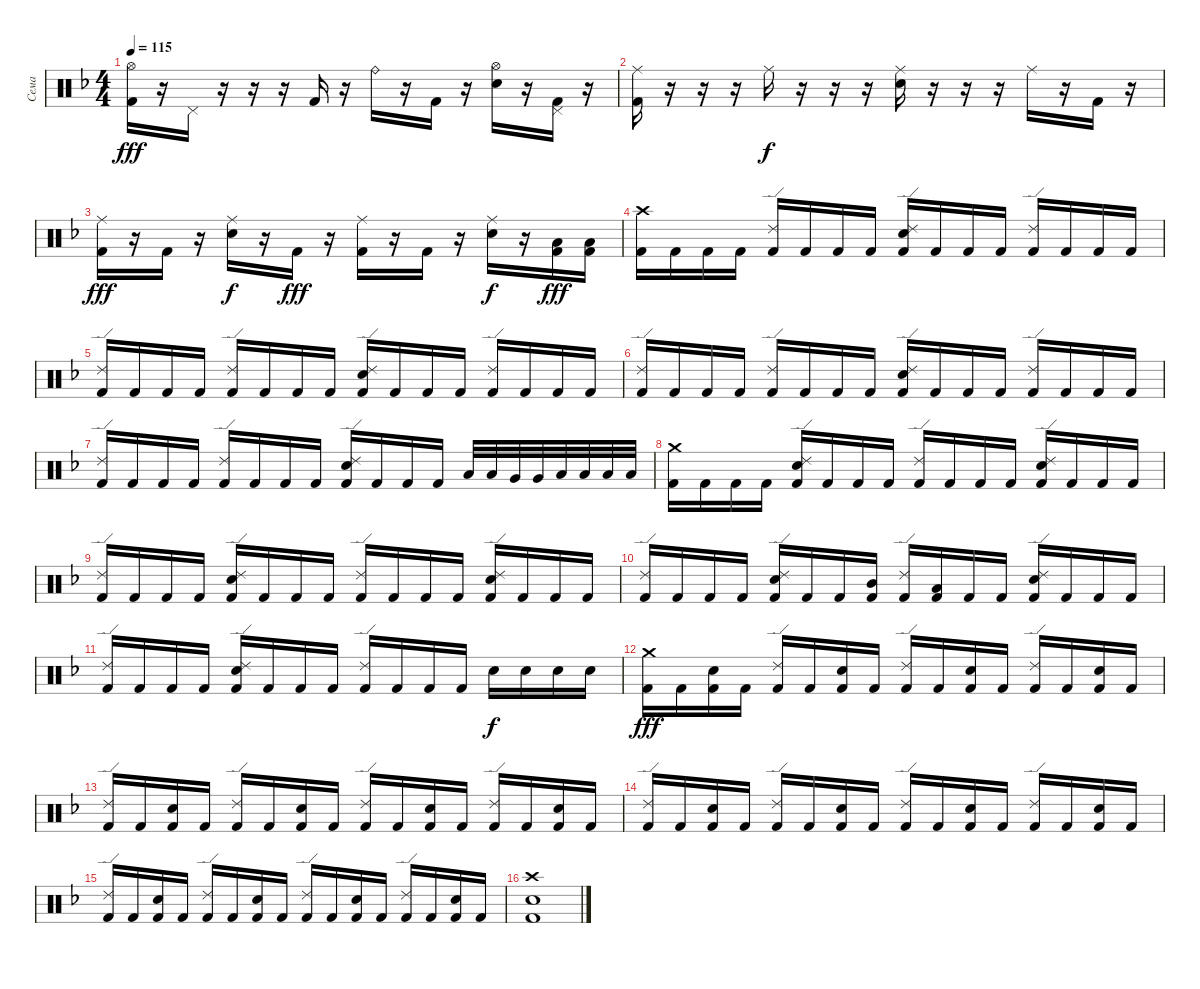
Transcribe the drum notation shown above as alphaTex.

\track ("Сема" "Сема") {instrument percussion}
\staff {score}
\articulation defaults
\ts (4 4)
\tempo 115
\clef neutral
\ks dminor
("Hi-Hat (open)" "Kick (hit) 2").16{dy fff} r.16 "Pedal Hi-Hat (hit)".16 r.16 r.16 r.16 "Kick (hit) 2".16 r.16 "Ride (bell)".16 r.16 "Kick (hit) 2".16 r.16 ("Hi-Hat (open)" "Electric Snare (hit)").16 r.16 ("Pedal Hi-Hat (hit)" "Kick (hit) 2").16 r.16 |
("Ride (middle)" "Kick (hit) 2").16 r.16 r.16 r.16 "Ride (middle)".16{dy f} r.16 r.16 r.16 ("Ride (middle)" "Electric Snare (hit)").16 r.16 r.16 r.16 "Ride (middle)".16 r.16 "Kick (hit) 2".16 r.16 |
("Ride (middle)" "Kick (hit) 2").16{dy fff} r.16 "Kick (hit) 2".16 r.16 ("Ride (middle)" "Electric Snare (hit)").16{dy f} r.16 "Kick (hit) 2".16{dy fff} r.16 ("Ride (middle)" "Kick (hit) 2").16 r.16 "Kick (hit) 2".16 r.16 ("Ride (middle)" "Electric Snare (hit)").16{dy f} r.16 ("Low Tom (hit)" "Kick (hit) 2").16{dy fff} ("Low Floor Tom (hit)" "Kick (hit) 2").16 |
("Crash high (hit)" "Kick (hit) 2").16 "Kick (hit) 2".16 "Kick (hit) 2".16 "Kick (hit) 2".16 ("Ride (edge) 2" "Kick (hit) 2").16 "Kick (hit) 2".16 "Kick (hit) 2".16 "Kick (hit) 2".16 ("Ride (edge) 2" "Electric Snare (hit)" "Kick (hit) 2").16 "Kick (hit) 2".16 "Kick (hit) 2".16 "Kick (hit) 2".16 ("Ride (edge) 2" "Kick (hit) 2").16 "Kick (hit) 2".16 "Kick (hit) 2".16 "Kick (hit) 2".16 |
("Ride (edge) 2" "Kick (hit) 2").16 "Kick (hit) 2".16 "Kick (hit) 2".16 "Kick (hit) 2".16 ("Ride (edge) 2" "Kick (hit) 2").16 "Kick (hit) 2".16 "Kick (hit) 2".16 "Kick (hit) 2".16 ("Ride (edge) 2" "Electric Snare (hit)" "Kick (hit) 2").16 "Kick (hit) 2".16 "Kick (hit) 2".16 "Kick (hit) 2".16 ("Ride (edge) 2" "Kick (hit) 2").16 "Kick (hit) 2".16 "Kick (hit) 2".16 "Kick (hit) 2".16 |
("Ride (edge) 2" "Kick (hit) 2").16 "Kick (hit) 2".16 "Kick (hit) 2".16 "Kick (hit) 2".16 ("Ride (edge) 2" "Kick (hit) 2").16 "Kick (hit) 2".16 "Kick (hit) 2".16 "Kick (hit) 2".16 ("Ride (edge) 2" "Electric Snare (hit)" "Kick (hit) 2").16 "Kick (hit) 2".16 "Kick (hit) 2".16 "Kick (hit) 2".16 ("Ride (edge) 2" "Kick (hit) 2").16 "Kick (hit) 2".16 "Kick (hit) 2".16 "Kick (hit) 2".16 |
("Ride (edge) 2" "Kick (hit) 2").16 "Kick (hit) 2".16 "Kick (hit) 2".16 "Kick (hit) 2".16 ("Ride (edge) 2" "Kick (hit) 2").16 "Kick (hit) 2".16 "Kick (hit) 2".16 "Kick (hit) 2".16 ("Ride (edge) 2" "Electric Snare (hit)" "Kick (hit) 2").16 "Kick (hit) 2".16 "Kick (hit) 2".16 "Kick (hit) 2".16 "Low Tom (hit)".32 "Low Tom (hit)".32 "Very Low Tom (hit)".32 "Very Low Tom (hit)".32 "Low Floor Tom (hit)".32 "Low Floor Tom (hit)".32 "Low Floor Tom (hit)".32 "Low Floor Tom (hit)".32 |
("Crash medium (hit)" "Kick (hit) 2").16 "Kick (hit) 2".16 "Kick (hit) 2".16 "Kick (hit) 2".16 ("Ride (edge) 2" "Electric Snare (hit)" "Kick (hit) 2").16 "Kick (hit) 2".16 "Kick (hit) 2".16 "Kick (hit) 2".16 ("Ride (edge) 2" "Kick (hit) 2").16 "Kick (hit) 2".16 "Kick (hit) 2".16 "Kick (hit) 2".16 ("Ride (edge) 2" "Electric Snare (hit)" "Kick (hit) 2").16 "Kick (hit) 2".16 "Kick (hit) 2".16 "Kick (hit) 2".16 |
("Ride (edge) 2" "Kick (hit) 2").16 "Kick (hit) 2".16 "Kick (hit) 2".16 "Kick (hit) 2".16 ("Ride (edge) 2" "Electric Snare (hit)" "Kick (hit) 2").16 "Kick (hit) 2".16 "Kick (hit) 2".16 "Kick (hit) 2".16 ("Ride (edge) 2" "Kick (hit) 2").16 "Kick (hit) 2".16 "Kick (hit) 2".16 "Kick (hit) 2".16 ("Ride (edge) 2" "Electric Snare (hit)" "Kick (hit) 2").16 "Kick (hit) 2".16 "Kick (hit) 2".16 "Kick (hit) 2".16 |
("Ride (edge) 2" "Kick (hit) 2").16 "Kick (hit) 2".16 "Kick (hit) 2".16 "Kick (hit) 2".16 ("Ride (edge) 2" "Electric Snare (hit)" "Kick (hit) 2").16 "Kick (hit) 2".16 "Kick (hit) 2".16 ("Mid Tom (hit)" "Kick (hit) 2").16 ("Ride (edge) 2" "Kick (hit) 2").16 ("Low Tom (hit)" "Kick (hit) 2").16 "Kick (hit) 2".16 "Kick (hit) 2".16 ("Ride (edge) 2" "Electric Snare (hit)" "Kick (hit) 2").16 "Kick (hit) 2".16 "Kick (hit) 2".16 "Kick (hit) 2".16 |
("Ride (edge) 2" "Kick (hit) 2").16 "Kick (hit) 2".16 "Kick (hit) 2".16 "Kick (hit) 2".16 ("Ride (edge) 2" "Electric Snare (hit)" "Kick (hit) 2").16 "Kick (hit) 2".16 "Kick (hit) 2".16 "Kick (hit) 2".16 ("Ride (edge) 2" "Kick (hit) 2").16 "Kick (hit) 2".16 "Kick (hit) 2".16 "Kick (hit) 2".16 "Electric Snare (hit)".16{dy f} "Electric Snare (hit)".16 "Electric Snare (hit)".16 "Electric Snare (hit)".16 |
("Crash medium (hit)" "Kick (hit) 2").16{dy fff} "Kick (hit) 2".16 ("Electric Snare (hit)" "Kick (hit) 2").16 "Kick (hit) 2".16 ("Ride (edge) 2" "Kick (hit) 2").16 "Kick (hit) 2".16 ("Electric Snare (hit)" "Kick (hit) 2").16 "Kick (hit) 2".16 ("Ride (edge) 2" "Kick (hit) 2").16 "Kick (hit) 2".16 ("Electric Snare (hit)" "Kick (hit) 2").16 "Kick (hit) 2".16 ("Ride (edge) 2" "Kick (hit) 2").16 "Kick (hit) 2".16 ("Electric Snare (hit)" "Kick (hit) 2").16 "Kick (hit) 2".16 |
("Ride (edge) 2" "Kick (hit) 2").16 "Kick (hit) 2".16 ("Electric Snare (hit)" "Kick (hit) 2").16 "Kick (hit) 2".16 ("Ride (edge) 2" "Kick (hit) 2").16 "Kick (hit) 2".16 ("Electric Snare (hit)" "Kick (hit) 2").16 "Kick (hit) 2".16 ("Ride (edge) 2" "Kick (hit) 2").16 "Kick (hit) 2".16 ("Electric Snare (hit)" "Kick (hit) 2").16 "Kick (hit) 2".16 ("Ride (edge) 2" "Kick (hit) 2").16 "Kick (hit) 2".16 ("Electric Snare (hit)" "Kick (hit) 2").16 "Kick (hit) 2".16 |
("Ride (edge) 2" "Kick (hit) 2").16 "Kick (hit) 2".16 ("Electric Snare (hit)" "Kick (hit) 2").16 "Kick (hit) 2".16 ("Ride (edge) 2" "Kick (hit) 2").16 "Kick (hit) 2".16 ("Electric Snare (hit)" "Kick (hit) 2").16 "Kick (hit) 2".16 ("Ride (edge) 2" "Kick (hit) 2").16 "Kick (hit) 2".16 ("Electric Snare (hit)" "Kick (hit) 2").16 "Kick (hit) 2".16 ("Ride (edge) 2" "Kick (hit) 2").16 "Kick (hit) 2".16 ("Electric Snare (hit)" "Kick (hit) 2").16 "Kick (hit) 2".16 |
("Ride (edge) 2" "Kick (hit) 2").16 "Kick (hit) 2".16 ("Electric Snare (hit)" "Kick (hit) 2").16 "Kick (hit) 2".16 ("Ride (edge) 2" "Kick (hit) 2").16 "Kick (hit) 2".16 ("Electric Snare (hit)" "Kick (hit) 2").16 "Kick (hit) 2".16 ("Ride (edge) 2" "Kick (hit) 2").16 "Kick (hit) 2".16 ("Electric Snare (hit)" "Kick (hit) 2").16 "Kick (hit) 2".16 ("Ride (edge) 2" "Kick (hit) 2").16 "Kick (hit) 2".16 ("Electric Snare (hit)" "Kick (hit) 2").16 "Kick (hit) 2".16 |
("Crash high (hit)" "Electric Snare (hit)" "Kick (hit) 2").1
